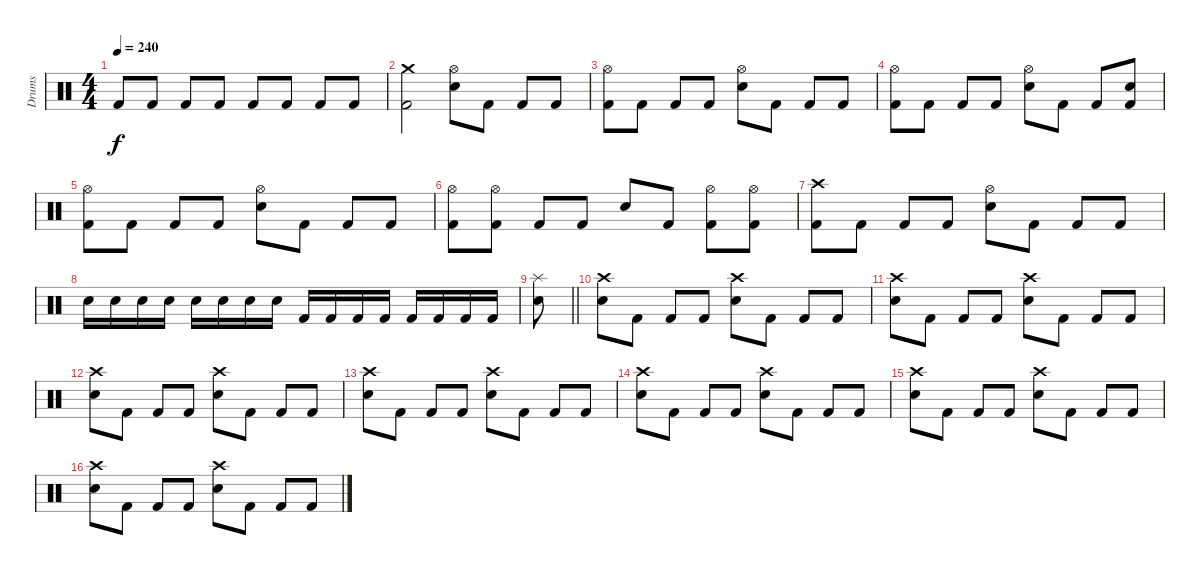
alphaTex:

\track ("Drums" "Drums") {instrument percussion}
\staff {score}
\articulation defaults
\ts (4 4)
\tempo 240
\clef neutral
\ks c "Kick (hit) 2".8{dy f} "Kick (hit) 2".8 "Kick (hit) 2".8 "Kick (hit) 2".8 "Kick (hit) 2".8 "Kick (hit) 2".8 "Kick (hit) 2".8 "Kick (hit) 2".8
|
("Crash medium (hit)" "Kick (hit) 2").2 ("Hi-Hat (open)" "Electric Snare (hit)").8 "Kick (hit) 2".8 "Kick (hit) 2".8 "Kick (hit) 2".8 |
("Hi-Hat (open)" "Kick (hit) 2").8 "Kick (hit) 2".8 "Kick (hit) 2".8 "Kick (hit) 2".8 ("Hi-Hat (open)" "Electric Snare (hit)").8 "Kick (hit) 2".8 "Kick (hit) 2".8 "Kick (hit) 2".8 |
("Hi-Hat (open)" "Kick (hit) 2").8 "Kick (hit) 2".8 "Kick (hit) 2".8 "Kick (hit) 2".8 ("Hi-Hat (open)" "Electric Snare (hit)").8 "Kick (hit) 2".8 "Kick (hit) 2".8 ("Electric Snare (hit)" "Kick (hit) 2").8 |
("Hi-Hat (open)" "Kick (hit) 2").8 "Kick (hit) 2".8 "Kick (hit) 2".8 "Kick (hit) 2".8 ("Hi-Hat (open)" "Electric Snare (hit)").8 "Kick (hit) 2".8 "Kick (hit) 2".8 "Kick (hit) 2".8 |
("Hi-Hat (open)" "Kick (hit) 2").8 ("Hi-Hat (open)" "Kick (hit) 2").8 "Kick (hit) 2".8 "Kick (hit) 2".8 "Electric Snare (hit)".8 "Kick (hit) 2".8 ("Hi-Hat (open)" "Kick (hit) 2").8 ("Hi-Hat (open)" "Kick (hit) 2").8 |
("Crash high (hit)" "Kick (hit) 2").8 "Kick (hit) 2".8 "Kick (hit) 2".8 "Kick (hit) 2".8 ("Hi-Hat (open)" "Electric Snare (hit)").8 "Kick (hit) 2".8 "Kick (hit) 2".8 "Kick (hit) 2".8 |
"Electric Snare (hit)".16 "Electric Snare (hit)".16 "Electric Snare (hit)".16 "Electric Snare (hit)".16 "Electric Snare (hit)".16 "Electric Snare (hit)".16 "Electric Snare (hit)".16 "Electric Snare (hit)".16 "Kick (hit) 2".16 "Kick (hit) 2".16 "Kick (hit) 2".16 "Kick (hit) 2".16 "Kick (hit) 2".16 "Kick (hit) 2".16 "Kick (hit) 2".16 "Kick (hit) 2".16 |
\barLineRight lightlight
("Splash (hit)" "Electric Snare (hit)").8 |
("Crash high (hit)" "Electric Snare (hit)").8 "Kick (hit) 2".8 "Kick (hit) 2".8 "Kick (hit) 2".8 ("Crash high (hit)" "Electric Snare (hit)").8 "Kick (hit) 2".8 "Kick (hit) 2".8 "Kick (hit) 2".8 |
("Crash high (hit)" "Electric Snare (hit)").8 "Kick (hit) 2".8 "Kick (hit) 2".8 "Kick (hit) 2".8 ("Crash high (hit)" "Electric Snare (hit)").8 "Kick (hit) 2".8 "Kick (hit) 2".8 "Kick (hit) 2".8 |
("Crash high (hit)" "Electric Snare (hit)").8 "Kick (hit) 2".8 "Kick (hit) 2".8 "Kick (hit) 2".8 ("Crash high (hit)" "Electric Snare (hit)").8 "Kick (hit) 2".8 "Kick (hit) 2".8 "Kick (hit) 2".8 |
("Crash high (hit)" "Electric Snare (hit)").8 "Kick (hit) 2".8 "Kick (hit) 2".8 "Kick (hit) 2".8 ("Crash high (hit)" "Electric Snare (hit)").8 "Kick (hit) 2".8 "Kick (hit) 2".8 "Kick (hit) 2".8 |
("Crash high (hit)" "Electric Snare (hit)").8 "Kick (hit) 2".8 "Kick (hit) 2".8 "Kick (hit) 2".8 ("Crash high (hit)" "Electric Snare (hit)").8 "Kick (hit) 2".8 "Kick (hit) 2".8 "Kick (hit) 2".8 |
("Crash high (hit)" "Electric Snare (hit)").8 "Kick (hit) 2".8 "Kick (hit) 2".8 "Kick (hit) 2".8 ("Crash high (hit)" "Electric Snare (hit)").8 "Kick (hit) 2".8 "Kick (hit) 2".8 "Kick (hit) 2".8 |
("Crash high (hit)" "Electric Snare (hit)").8 "Kick (hit) 2".8 "Kick (hit) 2".8 "Kick (hit) 2".8 ("Crash high (hit)" "Electric Snare (hit)").8 "Kick (hit) 2".8 "Kick (hit) 2".8 "Kick (hit) 2".8
